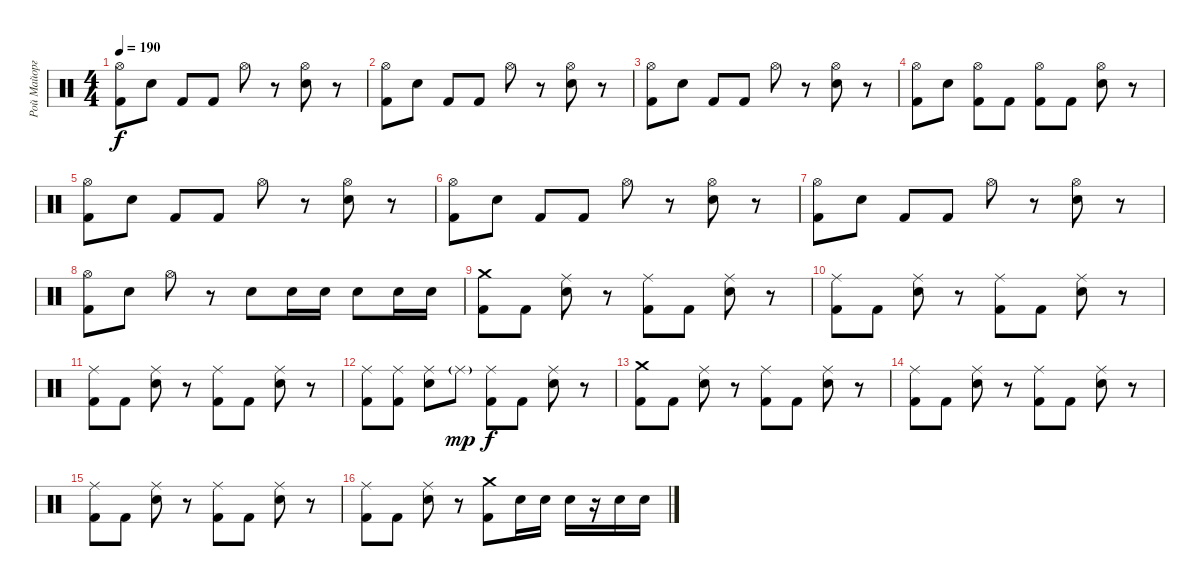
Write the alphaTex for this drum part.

\track ("Рой Майорга" "Рой Майорг") {instrument percussion}
\staff {score}
\articulation defaults
\ts (4 4)
\tempo 190
\clef neutral
\ks c
("Hi-Hat (open)" "Kick (hit) 2").8{dy f} "Electric Snare (hit)".8 "Kick (hit) 2".8 "Kick (hit) 2".8 "Hi-Hat (open)".8 r.8 ("Hi-Hat (open)" "Electric Snare (hit)").8 r.8 |
("Hi-Hat (open)" "Kick (hit) 2").8 "Electric Snare (hit)".8 "Kick (hit) 2".8 "Kick (hit) 2".8 "Hi-Hat (open)".8 r.8 ("Hi-Hat (open)" "Electric Snare (hit)").8 r.8 |
("Hi-Hat (open)" "Kick (hit) 2").8 "Electric Snare (hit)".8 "Kick (hit) 2".8 "Kick (hit) 2".8 "Hi-Hat (open)".8 r.8 ("Hi-Hat (open)" "Electric Snare (hit)").8 r.8 |
("Hi-Hat (open)" "Kick (hit) 2").8 "Electric Snare (hit)".8 ("Hi-Hat (open)" "Kick (hit) 2").8 "Kick (hit) 2".8 ("Hi-Hat (open)" "Kick (hit) 2").8 "Kick (hit) 2".8 ("Hi-Hat (open)" "Electric Snare (hit)").8 r.8 |
("Hi-Hat (open)" "Kick (hit) 2").8 "Electric Snare (hit)".8 "Kick (hit) 2".8 "Kick (hit) 2".8 "Hi-Hat (open)".8 r.8 ("Hi-Hat (open)" "Electric Snare (hit)").8 r.8 |
("Hi-Hat (open)" "Kick (hit) 2").8 "Electric Snare (hit)".8 "Kick (hit) 2".8 "Kick (hit) 2".8 "Hi-Hat (open)".8 r.8 ("Hi-Hat (open)" "Electric Snare (hit)").8 r.8 |
("Hi-Hat (open)" "Kick (hit) 2").8 "Electric Snare (hit)".8 "Kick (hit) 2".8 "Kick (hit) 2".8 "Hi-Hat (open)".8 r.8 ("Hi-Hat (open)" "Electric Snare (hit)").8 r.8 |
("Hi-Hat (open)" "Kick (hit) 2").8 "Electric Snare (hit)".8 "Hi-Hat (open)".8 r.8 "Electric Snare (hit)".8 "Electric Snare (hit)".16 "Electric Snare (hit)".16 "Electric Snare (hit)".8 "Electric Snare (hit)".16 "Electric Snare (hit)".16 |
("Crash medium (hit)" "Kick (hit) 2").8 "Kick (hit) 2".8 ("Ride (middle)" "Electric Snare (hit)").8 r.8 ("Ride (middle)" "Kick (hit) 2").8 "Kick (hit) 2".8 ("Ride (middle)" "Electric Snare (hit)").8 r.8 |
("Ride (middle)" "Kick (hit) 2").8 "Kick (hit) 2".8 ("Ride (middle)" "Electric Snare (hit)").8 r.8 ("Ride (middle)" "Kick (hit) 2").8 "Kick (hit) 2".8 ("Ride (middle)" "Electric Snare (hit)").8 r.8 |
("Ride (middle)" "Kick (hit) 2").8 "Kick (hit) 2".8 ("Ride (middle)" "Electric Snare (hit)").8 r.8 ("Ride (middle)" "Kick (hit) 2").8 "Kick (hit) 2".8 ("Ride (middle)" "Electric Snare (hit)").8 r.8 |
("Ride (middle)" "Kick (hit) 2").8 ("Ride (middle)" "Kick (hit) 2").8 ("Ride (middle)" "Electric Snare (hit)").8 "Ride (middle)"{g}.8{dy mp} ("Ride (middle)" "Kick (hit) 2").8{dy f} "Kick (hit) 2".8 ("Ride (middle)" "Electric Snare (hit)").8 r.8 |
("Crash medium (hit)" "Kick (hit) 2").8 "Kick (hit) 2".8 ("Ride (middle)" "Electric Snare (hit)").8 r.8 ("Ride (middle)" "Kick (hit) 2").8 "Kick (hit) 2".8 ("Ride (middle)" "Electric Snare (hit)").8 r.8 |
("Ride (middle)" "Kick (hit) 2").8 "Kick (hit) 2".8 ("Ride (middle)" "Electric Snare (hit)").8 r.8 ("Ride (middle)" "Kick (hit) 2").8 "Kick (hit) 2".8 ("Ride (middle)" "Electric Snare (hit)").8 r.8 |
("Ride (middle)" "Kick (hit) 2").8 "Kick (hit) 2".8 ("Ride (middle)" "Electric Snare (hit)").8 r.8 ("Ride (middle)" "Kick (hit) 2").8 "Kick (hit) 2".8 ("Ride (middle)" "Electric Snare (hit)").8 r.8 |
("Ride (middle)" "Kick (hit) 2").8 "Kick (hit) 2".8 ("Ride (middle)" "Electric Snare (hit)").8 r.8 ("Crash medium (hit)" "Kick (hit) 2").8 "Electric Snare (hit)".16 "Electric Snare (hit)".16 "Electric Snare (hit)".16 r.16 "Electric Snare (hit)".16 "Electric Snare (hit)".16
